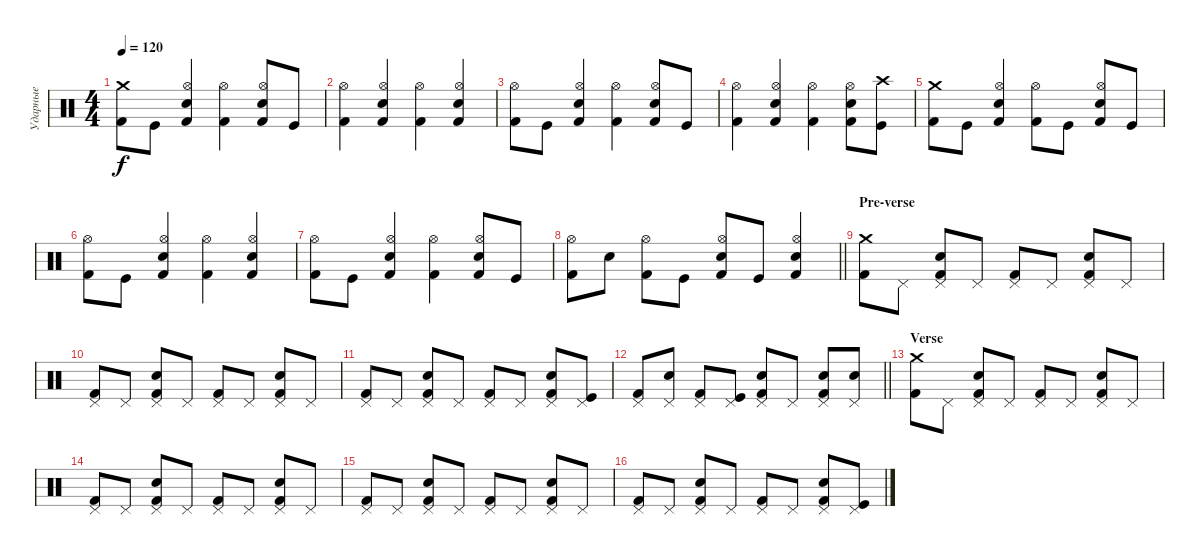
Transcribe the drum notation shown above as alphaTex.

\track ("Ударные" "Ударные") {instrument percussion}
\staff {score}
\articulation defaults
\ts (4 4)
\tempo 120
\clef neutral
\ks c
("Crash medium (hit)" "Kick (hit) 2").8{dy f} "Kick (hit)".8 ("Hi-Hat (open)" "Electric Snare (hit)" "Kick (hit) 2").4 ("Hi-Hat (open)" "Kick (hit) 2").4 ("Hi-Hat (open)" "Electric Snare (hit)" "Kick (hit) 2").8 "Kick (hit)".8 |
("Hi-Hat (open)" "Kick (hit) 2").4 ("Hi-Hat (open)" "Electric Snare (hit)" "Kick (hit) 2").4 ("Hi-Hat (open)" "Kick (hit) 2").4 ("Hi-Hat (open)" "Electric Snare (hit)" "Kick (hit) 2").4 |
("Hi-Hat (open)" "Kick (hit) 2").8 "Kick (hit)".8 ("Hi-Hat (open)" "Electric Snare (hit)" "Kick (hit) 2").4 ("Hi-Hat (open)" "Kick (hit) 2").4 ("Hi-Hat (open)" "Electric Snare (hit)" "Kick (hit) 2").8 "Kick (hit)".8 |
("Hi-Hat (open)" "Kick (hit) 2").4 ("Hi-Hat (open)" "Electric Snare (hit)" "Kick (hit) 2").4 ("Hi-Hat (open)" "Kick (hit) 2").4 ("Hi-Hat (open)" "Electric Snare (hit)" "Kick (hit) 2").8 ("Crash high (hit)" "Kick (hit)").8 |
("Crash medium (hit)" "Kick (hit) 2").8 "Kick (hit)".8 ("Hi-Hat (open)" "Electric Snare (hit)" "Kick (hit) 2").4 ("Hi-Hat (open)" "Kick (hit) 2").8 "Kick (hit)".8 ("Hi-Hat (open)" "Electric Snare (hit)" "Kick (hit) 2").8 "Kick (hit)".8 |
("Hi-Hat (open)" "Kick (hit) 2").8 "Kick (hit)".8 ("Hi-Hat (open)" "Electric Snare (hit)" "Kick (hit) 2").4 ("Hi-Hat (open)" "Kick (hit) 2").4 ("Hi-Hat (open)" "Electric Snare (hit)" "Kick (hit) 2").4 |
("Hi-Hat (open)" "Kick (hit) 2").8 "Kick (hit)".8 ("Hi-Hat (open)" "Electric Snare (hit)" "Kick (hit) 2").4 ("Hi-Hat (open)" "Kick (hit) 2").4 ("Hi-Hat (open)" "Electric Snare (hit)" "Kick (hit) 2").8 "Kick (hit)".8 |
\barLineRight lightlight
("Hi-Hat (open)" "Kick (hit) 2").8 "Electric Snare (hit)".8 ("Hi-Hat (open)" "Kick (hit) 2").8 "Kick (hit)".8 ("Hi-Hat (open)" "Electric Snare (hit)" "Kick (hit) 2").8 "Kick (hit)".8 ("Hi-Hat (open)" "Electric Snare (hit)" "Kick (hit) 2").4 |
\section ("" "Pre-verse")
("Crash medium (hit)" "Kick (hit) 2").8 "Pedal Hi-Hat (hit)".8 ("Pedal Hi-Hat (hit)" "Electric Snare (hit)" "Kick (hit) 2").8 "Pedal Hi-Hat (hit)".8 ("Pedal Hi-Hat (hit)" "Kick (hit) 2").8 "Pedal Hi-Hat (hit)".8 ("Pedal Hi-Hat (hit)" "Electric Snare (hit)" "Kick (hit) 2").8 "Pedal Hi-Hat (hit)".8 |
("Pedal Hi-Hat (hit)" "Kick (hit) 2").8 "Pedal Hi-Hat (hit)".8 ("Pedal Hi-Hat (hit)" "Electric Snare (hit)" "Kick (hit) 2").8 "Pedal Hi-Hat (hit)".8 ("Pedal Hi-Hat (hit)" "Kick (hit) 2").8 "Pedal Hi-Hat (hit)".8 ("Pedal Hi-Hat (hit)" "Electric Snare (hit)" "Kick (hit) 2").8 "Pedal Hi-Hat (hit)".8 |
("Pedal Hi-Hat (hit)" "Kick (hit) 2").8 "Pedal Hi-Hat (hit)".8 ("Pedal Hi-Hat (hit)" "Electric Snare (hit)" "Kick (hit) 2").8 "Pedal Hi-Hat (hit)".8 ("Pedal Hi-Hat (hit)" "Kick (hit) 2").8 "Pedal Hi-Hat (hit)".8 ("Pedal Hi-Hat (hit)" "Electric Snare (hit)" "Kick (hit) 2").8 ("Pedal Hi-Hat (hit)" "Kick (hit)").8 |
\barLineRight lightlight
("Pedal Hi-Hat (hit)" "Kick (hit) 2").8 ("Pedal Hi-Hat (hit)" "Electric Snare (hit)").8 ("Pedal Hi-Hat (hit)" "Kick (hit) 2").8 ("Pedal Hi-Hat (hit)" "Kick (hit)").8 ("Pedal Hi-Hat (hit)" "Electric Snare (hit)" "Kick (hit) 2").8 "Pedal Hi-Hat (hit)".8 ("Pedal Hi-Hat (hit)" "Electric Snare (hit)" "Kick (hit) 2").8 ("Pedal Hi-Hat (hit)" "Electric Snare (hit)").8 |
\section ("" "Verse")
("Crash medium (hit)" "Kick (hit) 2").8 "Pedal Hi-Hat (hit)".8 ("Pedal Hi-Hat (hit)" "Electric Snare (hit)" "Kick (hit) 2").8 "Pedal Hi-Hat (hit)".8 ("Pedal Hi-Hat (hit)" "Kick (hit) 2").8 "Pedal Hi-Hat (hit)".8 ("Pedal Hi-Hat (hit)" "Electric Snare (hit)" "Kick (hit) 2").8 "Pedal Hi-Hat (hit)".8 |
("Pedal Hi-Hat (hit)" "Kick (hit) 2").8 "Pedal Hi-Hat (hit)".8 ("Pedal Hi-Hat (hit)" "Electric Snare (hit)" "Kick (hit) 2").8 "Pedal Hi-Hat (hit)".8 ("Pedal Hi-Hat (hit)" "Kick (hit) 2").8 "Pedal Hi-Hat (hit)".8 ("Pedal Hi-Hat (hit)" "Electric Snare (hit)" "Kick (hit) 2").8 "Pedal Hi-Hat (hit)".8 |
("Pedal Hi-Hat (hit)" "Kick (hit) 2").8 "Pedal Hi-Hat (hit)".8 ("Pedal Hi-Hat (hit)" "Electric Snare (hit)" "Kick (hit) 2").8 "Pedal Hi-Hat (hit)".8 ("Pedal Hi-Hat (hit)" "Kick (hit) 2").8 "Pedal Hi-Hat (hit)".8 ("Pedal Hi-Hat (hit)" "Electric Snare (hit)" "Kick (hit) 2").8 "Pedal Hi-Hat (hit)".8 |
("Pedal Hi-Hat (hit)" "Kick (hit) 2").8 "Pedal Hi-Hat (hit)".8 ("Pedal Hi-Hat (hit)" "Electric Snare (hit)" "Kick (hit) 2").8 "Pedal Hi-Hat (hit)".8 ("Pedal Hi-Hat (hit)" "Kick (hit) 2").8 "Pedal Hi-Hat (hit)".8 ("Pedal Hi-Hat (hit)" "Electric Snare (hit)" "Kick (hit) 2").8 ("Pedal Hi-Hat (hit)" "Kick (hit)").8
